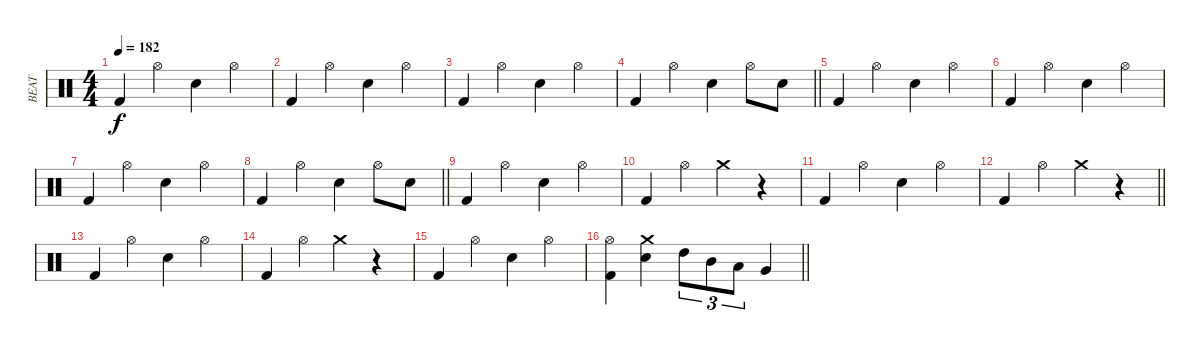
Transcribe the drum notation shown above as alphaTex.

\track ("BEAT" "BEAT") {instrument percussion}
\staff {score}
\articulation defaults
\ts (4 4)
\tempo 182
\clef neutral
\ks c "Kick (hit) 2".4{dy f} "Hi-Hat (open)".4 "Electric Snare (hit)".4 "Hi-Hat (open)".4
|
"Kick (hit) 2".4 "Hi-Hat (open)".4 "Electric Snare (hit)".4 "Hi-Hat (open)".4 |
"Kick (hit) 2".4 "Hi-Hat (open)".4 "Electric Snare (hit)".4 "Hi-Hat (open)".4 |
\barLineRight lightlight "Kick (hit) 2".4 "Hi-Hat (open)".4 "Electric Snare (hit)".4 "Hi-Hat (open)".8 "Electric Snare (hit)".8
|
"Kick (hit) 2".4 "Hi-Hat (open)".4 "Electric Snare (hit)".4 "Hi-Hat (open)".4 |
"Kick (hit) 2".4 "Hi-Hat (open)".4 "Electric Snare (hit)".4 "Hi-Hat (open)".4 |
"Kick (hit) 2".4 "Hi-Hat (open)".4 "Electric Snare (hit)".4 "Hi-Hat (open)".4 |
\barLineRight lightlight "Kick (hit) 2".4 "Hi-Hat (open)".4 "Electric Snare (hit)".4 "Hi-Hat (open)".8 "Electric Snare (hit)".8
|
"Kick (hit) 2".4 "Hi-Hat (open)".4 "Electric Snare (hit)".4 "Hi-Hat (open)".4 |
"Kick (hit) 2".4 "Hi-Hat (open)".4 "Crash medium (hit)".4 r.4 |
"Kick (hit) 2".4 "Hi-Hat (open)".4 "Electric Snare (hit)".4 "Hi-Hat (open)".4 |
\barLineRight lightlight "Kick (hit) 2".4 "Hi-Hat (open)".4 "Crash medium (hit)".4
r.4 |
"Kick (hit) 2".4 "Hi-Hat (open)".4 "Electric Snare (hit)".4 "Hi-Hat (open)".4 |
"Kick (hit) 2".4 "Hi-Hat (open)".4 "Crash medium (hit)".4 r.4 |
"Kick (hit) 2".4 "Hi-Hat (open)".4 "Electric Snare (hit)".4 "Hi-Hat (open)".4 |
\barLineRight lightlight
("Hi-Hat (open)" "Kick (hit) 2").4 ("Crash medium (hit)" "Electric Snare (hit)").4 "High Tom (hit)".8{tu (3 2)} "Mid Tom (hit)".8{tu (3 2)} "Low Tom (hit)".8{tu (3 2)} "Very Low Tom (hit)".4
